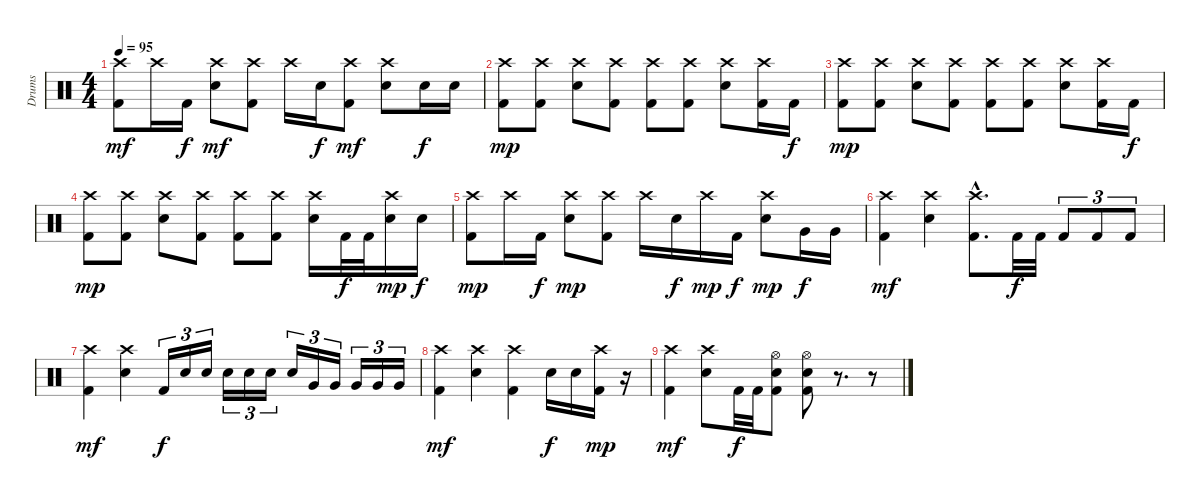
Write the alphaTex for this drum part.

\track ("Drums" "Drums") {instrument percussion}
\staff {score}
\articulation defaults
\ts (4 4)
\tempo 95
\clef neutral
\ks c
("Crash high (hit)" "Kick (hit) 2").8{dy mf} "Crash high (hit)".16 "Kick (hit) 2".16{dy f} ("Crash high (hit)" "Electric Snare (hit)").8{dy mf} ("Crash high (hit)" "Kick (hit) 2").8 "Crash high (hit)".16 "Electric Snare (hit)".16{dy f} ("Crash high (hit)" "Kick (hit) 2").8{dy mf} ("Crash high (hit)" "Electric Snare (hit)").8 "Electric Snare (hit)".16{dy f} "Electric Snare (hit)".16 |
("Crash high (hit)" "Kick (hit) 2").8{dy mp} ("Crash high (hit)" "Kick (hit) 2").8 ("Crash high (hit)" "Electric Snare (hit)").8 ("Crash high (hit)" "Kick (hit) 2").8 ("Crash high (hit)" "Kick (hit) 2").8 ("Crash high (hit)" "Kick (hit) 2").8 ("Crash high (hit)" "Electric Snare (hit)").8 ("Crash high (hit)" "Kick (hit) 2").16 "Kick (hit) 2".16{dy f} |
("Crash high (hit)" "Kick (hit) 2").8{dy mp} ("Crash high (hit)" "Kick (hit) 2").8 ("Crash high (hit)" "Electric Snare (hit)").8 ("Crash high (hit)" "Kick (hit) 2").8 ("Crash high (hit)" "Kick (hit) 2").8 ("Crash high (hit)" "Kick (hit) 2").8 ("Crash high (hit)" "Electric Snare (hit)").8 ("Crash high (hit)" "Kick (hit) 2").16 "Kick (hit) 2".16{dy f} |
("Crash high (hit)" "Kick (hit) 2").8{dy mp} ("Crash high (hit)" "Kick (hit) 2").8 ("Crash high (hit)" "Electric Snare (hit)").8 ("Crash high (hit)" "Kick (hit) 2").8 ("Crash high (hit)" "Kick (hit) 2").8 ("Crash high (hit)" "Kick (hit) 2").8 ("Crash high (hit)" "Electric Snare (hit)").16 "Kick (hit) 2".32{dy f} "Kick (hit) 2".32 ("Crash high (hit)" "Electric Snare (hit)").16{dy mp} "Electric Snare (hit)".16{dy f} |
("Crash high (hit)" "Kick (hit) 2").8{dy mp} "Crash high (hit)".16 "Kick (hit) 2".16{dy f} ("Crash high (hit)" "Electric Snare (hit)").8{dy mp} ("Crash high (hit)" "Kick (hit) 2").8 "Crash high (hit)".16 "Electric Snare (hit)".16{dy f} "Crash high (hit)".16{dy mp} "Kick (hit) 2".16{dy f} ("Crash high (hit)" "Electric Snare (hit)").8{dy mp} "Very Low Tom (hit)".16{dy f} "Very Low Tom (hit)".16 |
("Crash high (hit)" "Kick (hit) 2").4{dy mf} ("Crash high (hit)" "Electric Snare (hit)").4 ("Crash high (hit)"{hac} "Kick (hit) 2"{hac}).8{d} "Kick (hit) 2".32{dy f} "Kick (hit) 2".32 "Kick (hit) 2".8{tu (3 2)} "Kick (hit) 2".8{tu (3 2)} "Kick (hit) 2".8{tu (3 2)} |
("Crash high (hit)" "Kick (hit) 2").4{dy mf} ("Crash high (hit)" "Electric Snare (hit)").4 "Kick (hit) 2".16{tu (3 2) dy f} "Electric Snare (hit)".16{tu (3 2)} "Electric Snare (hit)".16{tu (3 2)} "Electric Snare (hit)".16{tu (3 2)} "Electric Snare (hit)".16{tu (3 2)} "Electric Snare (hit)".16{tu (3 2)} "Electric Snare (hit)".16{tu (3 2)} "Very Low Tom (hit)".16{tu (3 2)} "Very Low Tom (hit)".16{tu (3 2)} "Very Low Tom (hit)".16{tu (3 2)} "Very Low Tom (hit)".16{tu (3 2)} "Very Low Tom (hit)".16{tu (3 2)} |
("Crash high (hit)" "Kick (hit) 2").4{dy mf} ("Crash high (hit)" "Electric Snare (hit)").4 ("Crash high (hit)" "Kick (hit) 2").4 "Electric Snare (hit)".16{dy f} "Electric Snare (hit)".16 ("Crash high (hit)" "Kick (hit) 2").16{dy mp} r.16 |
("Crash high (hit)" "Kick (hit) 2").4{dy mf} ("Crash high (hit)" "Electric Snare (hit)").8 "Kick (hit) 2".32{dy f} "Kick (hit) 2".32 ("Hi-Hat (open)" "Electric Snare (hit)" "Kick (hit) 2").8 ("Hi-Hat (open)" "Electric Snare (hit)" "Kick (hit) 2").8 r.8{d} r.8
